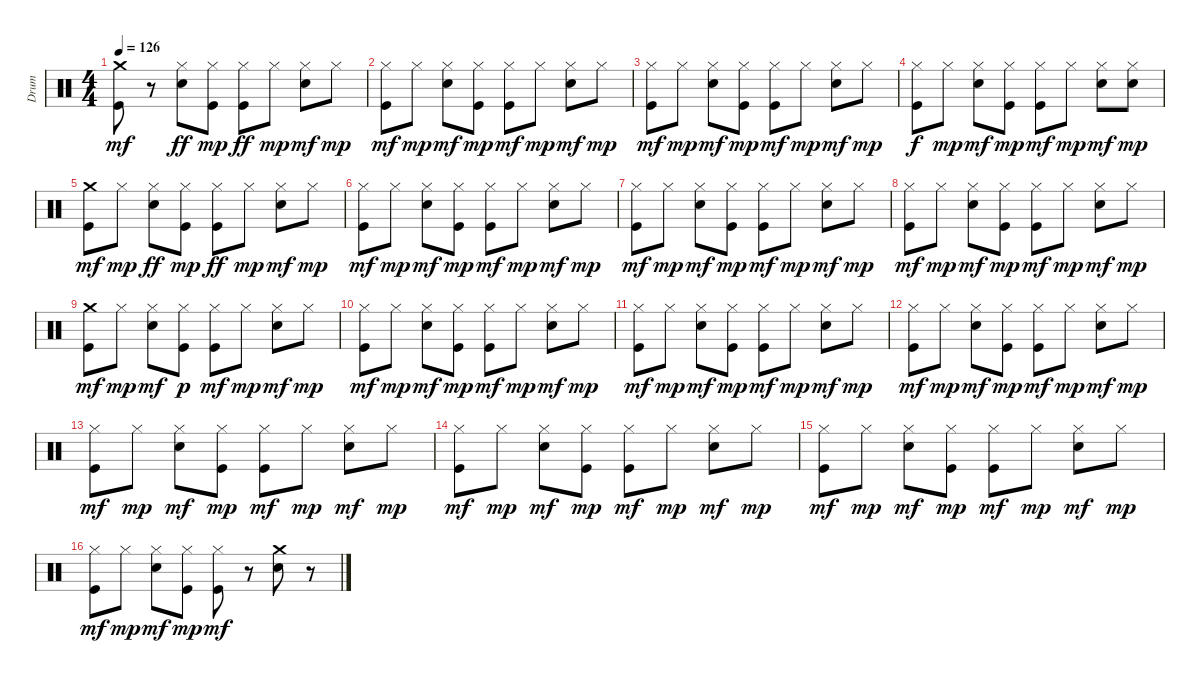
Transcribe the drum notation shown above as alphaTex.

\track ("Drum" "Drum") {instrument percussion}
\staff {score}
\articulation defaults
\ts (4 4)
\tempo 126
\clef neutral
\ks c
("Kick (hit)" "Crash medium (hit)").8{dy mf} r.8 ("Snare (hit) 2" "Hi-Hat (closed)").8{dy ff} ("Kick (hit)" "Hi-Hat (closed)").8{dy mp} ("Kick (hit)" "Hi-Hat (closed)").8{dy ff} "Hi-Hat (closed)".8{dy mp} ("Snare (hit) 2" "Hi-Hat (closed)").8{dy mf} "Hi-Hat (closed)".8{dy mp} |
("Kick (hit)" "Hi-Hat (closed)").8{dy mf} "Hi-Hat (closed)".8{dy mp} ("Snare (hit) 2" "Hi-Hat (closed)").8{dy mf} ("Kick (hit)" "Hi-Hat (closed)").8{dy mp} ("Kick (hit)" "Hi-Hat (closed)").8{dy mf} "Hi-Hat (closed)".8{dy mp} ("Snare (hit) 2" "Hi-Hat (closed)").8{dy mf} "Hi-Hat (closed)".8{dy mp} |
("Kick (hit)" "Hi-Hat (closed)").8{dy mf} "Hi-Hat (closed)".8{dy mp} ("Snare (hit) 2" "Hi-Hat (closed)").8{dy mf} ("Kick (hit)" "Hi-Hat (closed)").8{dy mp} ("Kick (hit)" "Hi-Hat (closed)").8{dy mf} "Hi-Hat (closed)".8{dy mp} ("Snare (hit) 2" "Hi-Hat (closed)").8{dy mf} "Hi-Hat (closed)".8{dy mp} |
("Kick (hit)" "Hi-Hat (closed)").8{dy f} "Hi-Hat (closed)".8{dy mp} ("Snare (hit) 2" "Hi-Hat (closed)").8{dy mf} ("Kick (hit)" "Hi-Hat (closed)").8{dy mp} ("Kick (hit)" "Hi-Hat (closed)").8{dy mf} "Hi-Hat (closed)".8{dy mp} ("Snare (hit) 2" "Hi-Hat (closed)").8{dy mf} ("Snare (hit) 2" "Hi-Hat (closed)").8{dy mp} |
("Kick (hit)" "Crash medium (hit)").8{dy mf} "Hi-Hat (closed)".8{dy mp} ("Snare (hit) 2" "Hi-Hat (closed)").8{dy ff} ("Kick (hit)" "Hi-Hat (closed)").8{dy mp} ("Kick (hit)" "Hi-Hat (closed)").8{dy ff} "Hi-Hat (closed)".8{dy mp} ("Snare (hit) 2" "Hi-Hat (closed)").8{dy mf} "Hi-Hat (closed)".8{dy mp} |
("Kick (hit)" "Hi-Hat (closed)").8{dy mf} "Hi-Hat (closed)".8{dy mp} ("Snare (hit) 2" "Hi-Hat (closed)").8{dy mf} ("Kick (hit)" "Hi-Hat (closed)").8{dy mp} ("Kick (hit)" "Hi-Hat (closed)").8{dy mf} "Hi-Hat (closed)".8{dy mp} ("Snare (hit) 2" "Hi-Hat (closed)").8{dy mf} "Hi-Hat (closed)".8{dy mp} |
("Kick (hit)" "Hi-Hat (closed)").8{dy mf} "Hi-Hat (closed)".8{dy mp} ("Snare (hit) 2" "Hi-Hat (closed)").8{dy mf} ("Kick (hit)" "Hi-Hat (closed)").8{dy mp} ("Kick (hit)" "Hi-Hat (closed)").8{dy mf} "Hi-Hat (closed)".8{dy mp} ("Snare (hit) 2" "Hi-Hat (closed)").8{dy mf} "Hi-Hat (closed)".8{dy mp} |
("Kick (hit)" "Hi-Hat (closed)").8{dy mf} "Hi-Hat (closed)".8{dy mp} ("Snare (hit) 2" "Hi-Hat (closed)").8{dy mf} ("Kick (hit)" "Hi-Hat (closed)").8{dy mp} ("Kick (hit)" "Hi-Hat (closed)").8{dy mf} "Hi-Hat (closed)".8{dy mp} ("Snare (hit) 2" "Hi-Hat (closed)").8{dy mf} "Hi-Hat (closed)".8{dy mp} |
("Kick (hit)" "Crash medium (hit)").8{dy mf} "Hi-Hat (closed)".8{dy mp} ("Snare (hit) 2" "Hi-Hat (closed)").8{dy mf} ("Kick (hit)" "Hi-Hat (closed)").8{dy p} ("Kick (hit)" "Hi-Hat (closed)").8{dy mf} "Hi-Hat (closed)".8{dy mp} ("Snare (hit) 2" "Hi-Hat (closed)").8{dy mf} "Hi-Hat (closed)".8{dy mp} |
("Kick (hit)" "Hi-Hat (closed)").8{dy mf} "Hi-Hat (closed)".8{dy mp} ("Snare (hit) 2" "Hi-Hat (closed)").8{dy mf} ("Kick (hit)" "Hi-Hat (closed)").8{dy mp} ("Kick (hit)" "Hi-Hat (closed)").8{dy mf} "Hi-Hat (closed)".8{dy mp} ("Snare (hit) 2" "Hi-Hat (closed)").8{dy mf} "Hi-Hat (closed)".8{dy mp} |
("Kick (hit)" "Hi-Hat (closed)").8{dy mf} "Hi-Hat (closed)".8{dy mp} ("Snare (hit) 2" "Hi-Hat (closed)").8{dy mf} ("Kick (hit)" "Hi-Hat (closed)").8{dy mp} ("Kick (hit)" "Hi-Hat (closed)").8{dy mf} "Hi-Hat (closed)".8{dy mp} ("Snare (hit) 2" "Hi-Hat (closed)").8{dy mf} "Hi-Hat (closed)".8{dy mp} |
("Kick (hit)" "Hi-Hat (closed)").8{dy mf} "Hi-Hat (closed)".8{dy mp} ("Snare (hit) 2" "Hi-Hat (closed)").8{dy mf} ("Kick (hit)" "Hi-Hat (closed)").8{dy mp} ("Kick (hit)" "Hi-Hat (closed)").8{dy mf} "Hi-Hat (closed)".8{dy mp} ("Snare (hit) 2" "Hi-Hat (closed)").8{dy mf} "Hi-Hat (closed)".8{dy mp} |
("Kick (hit)" "Hi-Hat (closed)").8{dy mf} "Hi-Hat (closed)".8{dy mp} ("Snare (hit) 2" "Hi-Hat (closed)").8{dy mf} ("Kick (hit)" "Hi-Hat (closed)").8{dy mp} ("Kick (hit)" "Hi-Hat (closed)").8{dy mf} "Hi-Hat (closed)".8{dy mp} ("Snare (hit) 2" "Hi-Hat (closed)").8{dy mf} "Hi-Hat (closed)".8{dy mp} |
("Kick (hit)" "Hi-Hat (closed)").8{dy mf} "Hi-Hat (closed)".8{dy mp} ("Snare (hit) 2" "Hi-Hat (closed)").8{dy mf} ("Kick (hit)" "Hi-Hat (closed)").8{dy mp} ("Kick (hit)" "Hi-Hat (closed)").8{dy mf} "Hi-Hat (closed)".8{dy mp} ("Snare (hit) 2" "Hi-Hat (closed)").8{dy mf} "Hi-Hat (closed)".8{dy mp} |
("Kick (hit)" "Hi-Hat (closed)").8{dy mf} "Hi-Hat (closed)".8{dy mp} ("Snare (hit) 2" "Hi-Hat (closed)").8{dy mf} ("Kick (hit)" "Hi-Hat (closed)").8{dy mp} ("Kick (hit)" "Hi-Hat (closed)").8{dy mf} "Hi-Hat (closed)".8{dy mp} ("Snare (hit) 2" "Hi-Hat (closed)").8{dy mf} "Hi-Hat (closed)".8{dy mp} |
("Kick (hit)" "Hi-Hat (closed)").8{dy mf} "Hi-Hat (closed)".8{dy mp} ("Snare (hit) 2" "Hi-Hat (closed)").8{dy mf} ("Kick (hit)" "Hi-Hat (closed)").8{dy mp} ("Kick (hit)" "Hi-Hat (closed)").8{dy mf} r.8 ("Snare (hit) 2" "Crash medium (hit)").8 r.8
